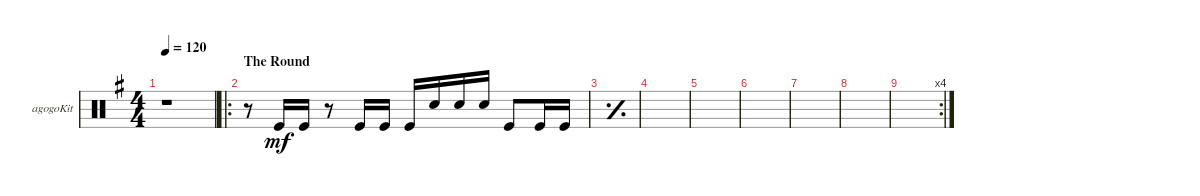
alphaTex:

\defaultSystemsLayout 4
\bracketExtendMode groupsimilarinstruments
\firstSystemTrackNameOrientation horizontal
\otherSystemsTrackNameOrientation horizontal
\track ("Agogo" "agogoKit") {instrument percussion}
\staff {score}
\articulation defaults
\ts (4 4)
\tempo 120
\clef neutral
\scale
0.477178
\ks g
r.1{dy mf} |
\ro
\section ("" "The Round")
\scale
0.530921 r.8 "Kick (hit)".16 "Kick (hit)".16 r.8 "Kick (hit)".16 "Kick (hit)".16 "Kick (hit)".16 "Snare (hit) 2".16 "Snare (hit) 2".16 "Snare (hit) 2".16 "Kick (hit)".8 "Kick (hit)".16 "Kick (hit)".16 |
\simile simple
\scale
0.194023 |
\scale
0.183325 |
\scale
0.193723 |
\scale
0.18302 |
\scale
0.179798 |
\scale
0.161468 |
\rc 4
\scale
0.180492
